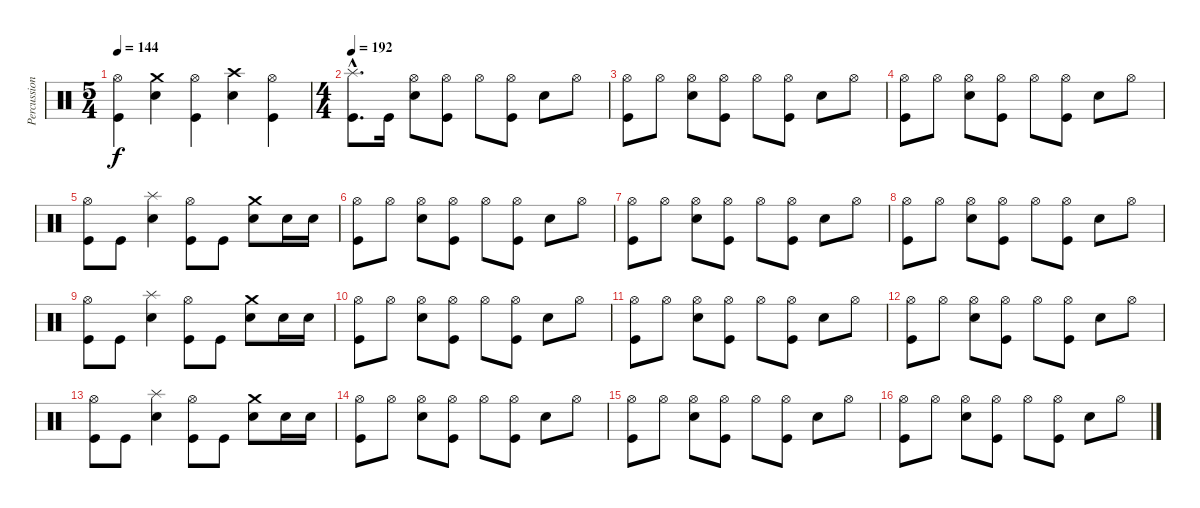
\track ("Percussions" "Percussion") {instrument percussion}
\staff {score}
\articulation defaults
\ts (5 4)
\tempo 144
\clef neutral
\ks c
("Kick (hit)" "Hi-Hat (open)").4{dy f} ("Electric Snare (hit)" "Crash medium (hit)").4 ("Kick (hit)" "Hi-Hat (open)").4 ("Electric Snare (hit)" "Crash high (hit)").4 ("Kick (hit)" "Hi-Hat (open)").4 |
\ts (4 4)
\tempo 192
("Kick (hit)"{hac} "Splash (hit)"{hac}).8{d} "Kick (hit)".16 ("Electric Snare (hit)" "Hi-Hat (open)").8 ("Kick (hit)" "Hi-Hat (open)").8 "Hi-Hat (open)".8 ("Kick (hit)" "Hi-Hat (open)").8 "Electric Snare (hit)".8 "Hi-Hat (open)".8 |
("Kick (hit)" "Hi-Hat (open)").8 "Hi-Hat (open)".8 ("Electric Snare (hit)" "Hi-Hat (open)").8 ("Kick (hit)" "Hi-Hat (open)").8 "Hi-Hat (open)".8 ("Kick (hit)" "Hi-Hat (open)").8 "Electric Snare (hit)".8 "Hi-Hat (open)".8 |
("Kick (hit)" "Hi-Hat (open)").8 "Hi-Hat (open)".8 ("Electric Snare (hit)" "Hi-Hat (open)").8 ("Kick (hit)" "Hi-Hat (open)").8 "Hi-Hat (open)".8 ("Kick (hit)" "Hi-Hat (open)").8 "Electric Snare (hit)".8 "Hi-Hat (open)".8 |
("Kick (hit)" "Hi-Hat (open)").8 "Kick (hit)".8 ("Electric Snare (hit)" "Splash (hit)").4 ("Kick (hit)" "Hi-Hat (open)").8 "Kick (hit)".8 ("Electric Snare (hit)" "Crash medium (hit)").8 "Electric Snare (hit)".16 "Electric Snare (hit)".16 |
("Kick (hit)" "Hi-Hat (open)").8 "Hi-Hat (open)".8 ("Electric Snare (hit)" "Hi-Hat (open)").8 ("Kick (hit)" "Hi-Hat (open)").8 "Hi-Hat (open)".8 ("Kick (hit)" "Hi-Hat (open)").8 "Electric Snare (hit)".8 "Hi-Hat (open)".8 |
("Kick (hit)" "Hi-Hat (open)").8 "Hi-Hat (open)".8 ("Electric Snare (hit)" "Hi-Hat (open)").8 ("Kick (hit)" "Hi-Hat (open)").8 "Hi-Hat (open)".8 ("Kick (hit)" "Hi-Hat (open)").8 "Electric Snare (hit)".8 "Hi-Hat (open)".8 |
("Kick (hit)" "Hi-Hat (open)").8 "Hi-Hat (open)".8 ("Electric Snare (hit)" "Hi-Hat (open)").8 ("Kick (hit)" "Hi-Hat (open)").8 "Hi-Hat (open)".8 ("Kick (hit)" "Hi-Hat (open)").8 "Electric Snare (hit)".8 "Hi-Hat (open)".8 |
("Kick (hit)" "Hi-Hat (open)").8 "Kick (hit)".8 ("Electric Snare (hit)" "Splash (hit)").4 ("Kick (hit)" "Hi-Hat (open)").8 "Kick (hit)".8 ("Electric Snare (hit)" "Crash medium (hit)").8 "Electric Snare (hit)".16 "Electric Snare (hit)".16 |
("Kick (hit)" "Hi-Hat (open)").8 "Hi-Hat (open)".8 ("Electric Snare (hit)" "Hi-Hat (open)").8 ("Kick (hit)" "Hi-Hat (open)").8 "Hi-Hat (open)".8 ("Kick (hit)" "Hi-Hat (open)").8 "Electric Snare (hit)".8 "Hi-Hat (open)".8 |
("Kick (hit)" "Hi-Hat (open)").8 "Hi-Hat (open)".8 ("Electric Snare (hit)" "Hi-Hat (open)").8 ("Kick (hit)" "Hi-Hat (open)").8 "Hi-Hat (open)".8 ("Kick (hit)" "Hi-Hat (open)").8 "Electric Snare (hit)".8 "Hi-Hat (open)".8 |
("Kick (hit)" "Hi-Hat (open)").8 "Hi-Hat (open)".8 ("Electric Snare (hit)" "Hi-Hat (open)").8 ("Kick (hit)" "Hi-Hat (open)").8 "Hi-Hat (open)".8 ("Kick (hit)" "Hi-Hat (open)").8 "Electric Snare (hit)".8 "Hi-Hat (open)".8 |
("Kick (hit)" "Hi-Hat (open)").8 "Kick (hit)".8 ("Electric Snare (hit)" "Splash (hit)").4 ("Kick (hit)" "Hi-Hat (open)").8 "Kick (hit)".8 ("Electric Snare (hit)" "Crash medium (hit)").8 "Electric Snare (hit)".16 "Electric Snare (hit)".16 |
("Kick (hit)" "Hi-Hat (open)").8 "Hi-Hat (open)".8 ("Electric Snare (hit)" "Hi-Hat (open)").8 ("Kick (hit)" "Hi-Hat (open)").8 "Hi-Hat (open)".8 ("Kick (hit)" "Hi-Hat (open)").8 "Electric Snare (hit)".8 "Hi-Hat (open)".8 |
("Kick (hit)" "Hi-Hat (open)").8 "Hi-Hat (open)".8 ("Electric Snare (hit)" "Hi-Hat (open)").8 ("Kick (hit)" "Hi-Hat (open)").8 "Hi-Hat (open)".8 ("Kick (hit)" "Hi-Hat (open)").8 "Electric Snare (hit)".8 "Hi-Hat (open)".8 |
("Kick (hit)" "Hi-Hat (open)").8 "Hi-Hat (open)".8 ("Electric Snare (hit)" "Hi-Hat (open)").8 ("Kick (hit)" "Hi-Hat (open)").8 "Hi-Hat (open)".8 ("Kick (hit)" "Hi-Hat (open)").8 "Electric Snare (hit)".8 "Hi-Hat (open)".8
